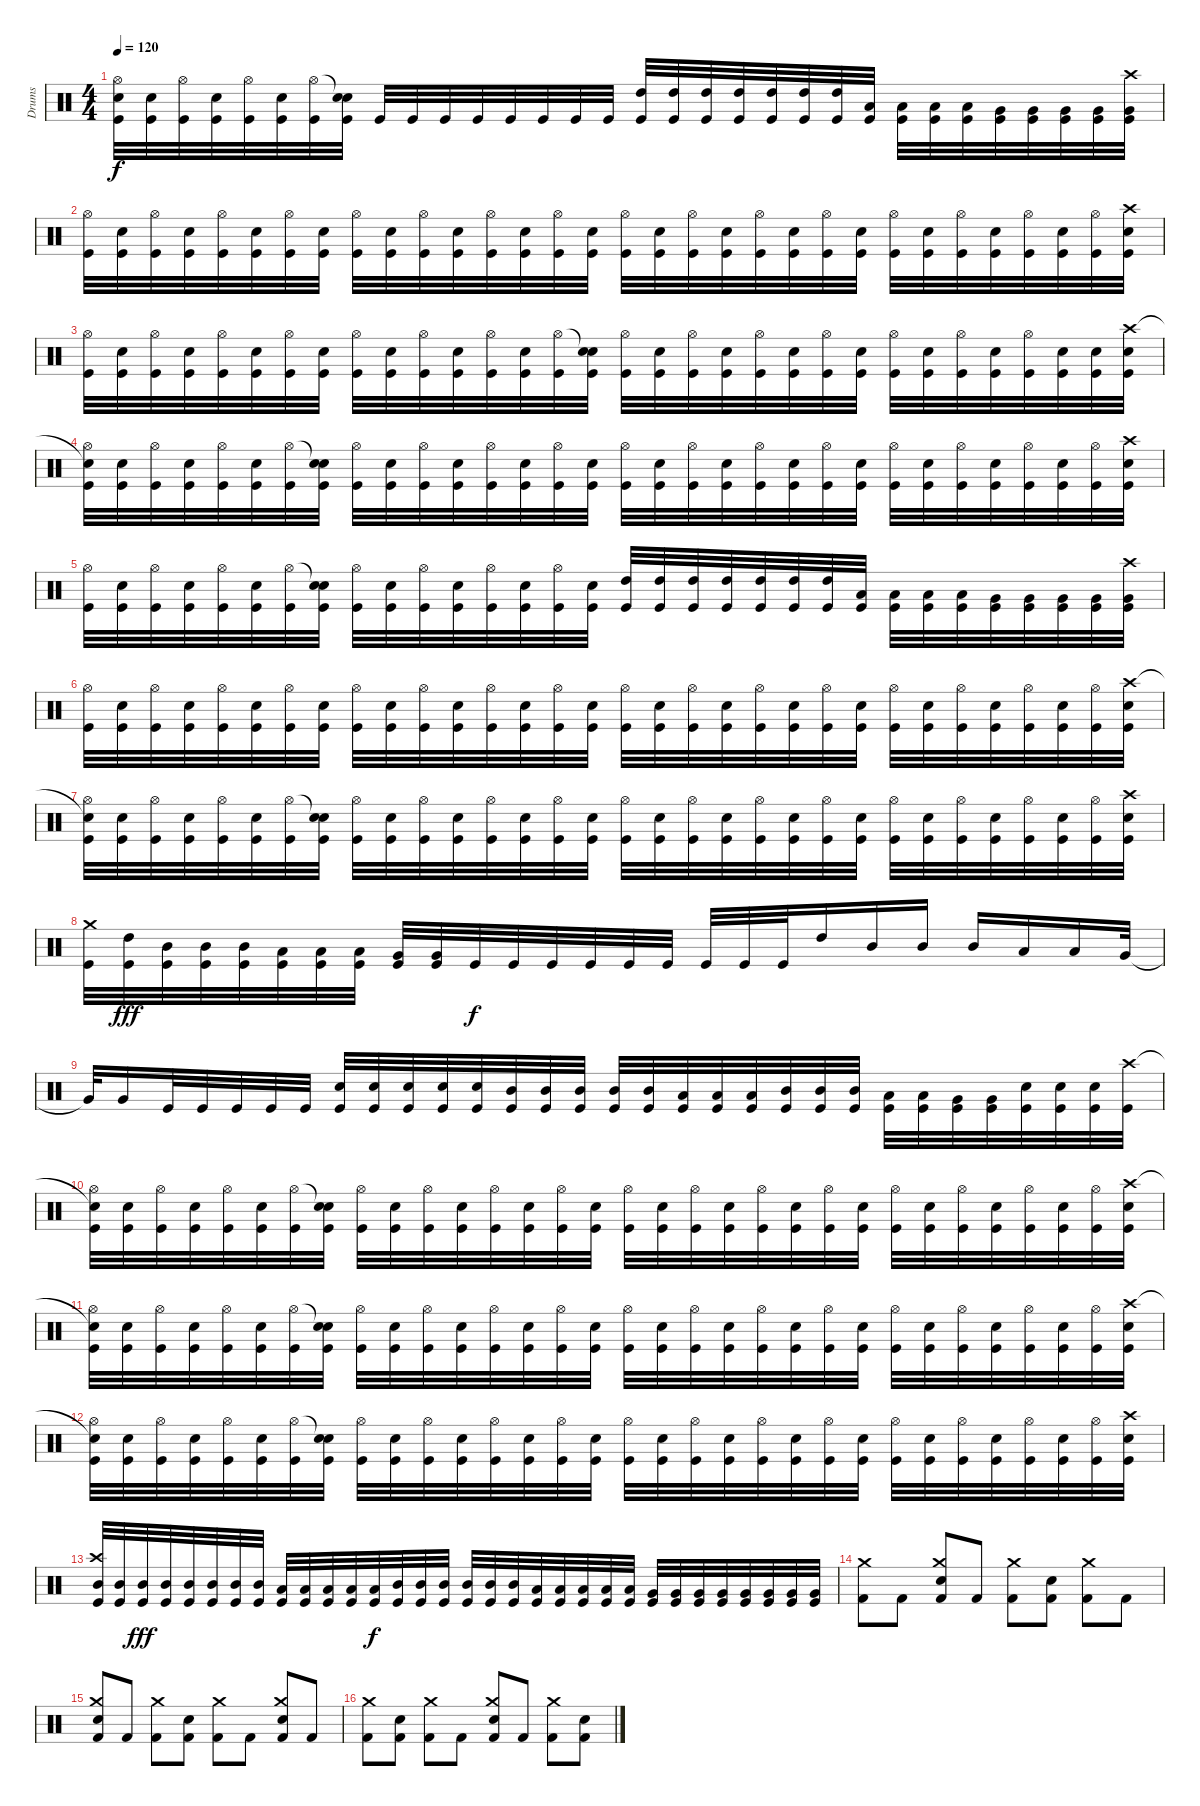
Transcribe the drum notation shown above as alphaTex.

\track ("Drums" "Drums") {instrument percussion}
\staff {score}
\articulation defaults
\ts (4 4)
\tempo 120
\clef neutral
\ks c
("Snare (hit)"{t} "Hi-Hat (open)" "Kick (hit)").32{dy f} ("Snare (hit) 2" "Kick (hit)").32 ("Hi-Hat (open)" "Kick (hit)").32 ("Snare (hit) 2" "Kick (hit)").32 ("Hi-Hat (open)" "Kick (hit)").32 ("Snare (hit) 2" "Kick (hit)").32 ("Hi-Hat (open)" "Kick (hit)").32 ("Snare (hit)"{t} "Snare (hit) 2" "Kick (hit)").32 "Kick (hit)".32 "Kick (hit)".32 "Kick (hit)".32 "Kick (hit)".32 "Kick (hit)".32 "Kick (hit)".32 "Kick (hit)".32 "Kick (hit)".32 ("High Tom (hit)" "Kick (hit)").32 ("High Tom (hit)" "Kick (hit)").32 ("High Tom (hit)" "Kick (hit)").32 ("High Tom (hit)" "Kick (hit)").32 ("High Tom (hit)" "Kick (hit)").32 ("High Tom (hit)" "Kick (hit)").32 ("High Tom (hit)" "Kick (hit)").32 ("Low Tom (hit)" "Kick (hit)").32 ("Low Tom (hit)" "Kick (hit)").32 ("Low Tom (hit)" "Kick (hit)").32 ("Low Tom (hit)" "Kick (hit)").32 ("Very Low Tom (hit)" "Kick (hit)").32 ("Very Low Tom (hit)" "Kick (hit)").32 ("Very Low Tom (hit)" "Kick (hit)").32 ("Very Low Tom (hit)" "Kick (hit)").32 ("Crash high (hit)" "Very Low Tom (hit)" "Kick (hit)").32 |
("Hi-Hat (open)" "Kick (hit)").32 ("Snare (hit) 2" "Kick (hit)").32 ("Hi-Hat (open)" "Kick (hit)").32 ("Snare (hit) 2" "Kick (hit)").32 ("Hi-Hat (open)" "Kick (hit)").32 ("Snare (hit) 2" "Kick (hit)").32 ("Hi-Hat (open)" "Kick (hit)").32 ("Snare (hit) 2" "Kick (hit)").32 ("Hi-Hat (open)" "Kick (hit)").32 ("Snare (hit) 2" "Kick (hit)").32 ("Hi-Hat (open)" "Kick (hit)").32 ("Snare (hit) 2" "Kick (hit)").32 ("Hi-Hat (open)" "Kick (hit)").32 ("Snare (hit) 2" "Kick (hit)").32 ("Hi-Hat (open)" "Kick (hit)").32 ("Snare (hit) 2" "Kick (hit)").32 ("Hi-Hat (open)" "Kick (hit)").32 ("Snare (hit) 2" "Kick (hit)").32 ("Hi-Hat (open)" "Kick (hit)").32 ("Snare (hit) 2" "Kick (hit)").32 ("Hi-Hat (open)" "Kick (hit)").32 ("Snare (hit) 2" "Kick (hit)").32 ("Hi-Hat (open)" "Kick (hit)").32 ("Snare (hit) 2" "Kick (hit)").32 ("Hi-Hat (open)" "Kick (hit)").32 ("Snare (hit) 2" "Kick (hit)").32 ("Hi-Hat (open)" "Kick (hit)").32 ("Snare (hit) 2" "Kick (hit)").32 ("Hi-Hat (open)" "Kick (hit)").32 ("Snare (hit) 2" "Kick (hit)").32 ("Hi-Hat (open)" "Kick (hit)").32 ("Crash high (hit)" "Snare (hit) 2" "Kick (hit)").32 |
("Hi-Hat (open)" "Kick (hit)").32 ("Snare (hit) 2" "Kick (hit)").32 ("Hi-Hat (open)" "Kick (hit)").32 ("Snare (hit) 2" "Kick (hit)").32 ("Hi-Hat (open)" "Kick (hit)").32 ("Snare (hit) 2" "Kick (hit)").32 ("Hi-Hat (open)" "Kick (hit)").32 ("Snare (hit) 2" "Kick (hit)").32 ("Hi-Hat (open)" "Kick (hit)").32 ("Snare (hit) 2" "Kick (hit)").32 ("Hi-Hat (open)" "Kick (hit)").32 ("Snare (hit) 2" "Kick (hit)").32 ("Hi-Hat (open)" "Kick (hit)").32 ("Snare (hit) 2" "Kick (hit)").32 ("Hi-Hat (open)" "Kick (hit)").32 ("Snare (hit)"{t} "Snare (hit) 2" "Kick (hit)").32 ("Hi-Hat (open)" "Kick (hit)").32 ("Snare (hit) 2" "Kick (hit)").32 ("Hi-Hat (open)" "Kick (hit)").32 ("Snare (hit) 2" "Kick (hit)").32 ("Hi-Hat (open)" "Kick (hit)").32 ("Snare (hit) 2" "Kick (hit)").32 ("Hi-Hat (open)" "Kick (hit)").32 ("Snare (hit) 2" "Kick (hit)").32 ("Hi-Hat (open)" "Kick (hit)").32 ("Snare (hit) 2" "Kick (hit)").32 ("Hi-Hat (open)" "Kick (hit)").32 ("Snare (hit) 2" "Kick (hit)").32 ("Hi-Hat (open)" "Kick (hit)").32 ("Snare (hit) 2" "Kick (hit)").32 ("Snare (hit)" "Kick (hit)").32 ("Crash high (hit)" "Snare (hit) 2" "Kick (hit)").32 |
("Snare (hit)"{t} "Hi-Hat (open)" "Kick (hit)").32 ("Snare (hit) 2" "Kick (hit)").32 ("Hi-Hat (open)" "Kick (hit)").32 ("Snare (hit) 2" "Kick (hit)").32 ("Hi-Hat (open)" "Kick (hit)").32 ("Snare (hit) 2" "Kick (hit)").32 ("Hi-Hat (open)" "Kick (hit)").32 ("Snare (hit)"{t} "Snare (hit) 2" "Kick (hit)").32 ("Hi-Hat (open)" "Kick (hit)").32 ("Snare (hit) 2" "Kick (hit)").32 ("Hi-Hat (open)" "Kick (hit)").32 ("Snare (hit) 2" "Kick (hit)").32 ("Hi-Hat (open)" "Kick (hit)").32 ("Snare (hit) 2" "Kick (hit)").32 ("Hi-Hat (open)" "Kick (hit)").32 ("Snare (hit) 2" "Kick (hit)").32 ("Hi-Hat (open)" "Kick (hit)").32 ("Snare (hit) 2" "Kick (hit)").32 ("Hi-Hat (open)" "Kick (hit)").32 ("Snare (hit) 2" "Kick (hit)").32 ("Hi-Hat (open)" "Kick (hit)").32 ("Snare (hit) 2" "Kick (hit)").32 ("Hi-Hat (open)" "Kick (hit)").32 ("Snare (hit) 2" "Kick (hit)").32 ("Hi-Hat (open)" "Kick (hit)").32 ("Snare (hit) 2" "Kick (hit)").32 ("Hi-Hat (open)" "Kick (hit)").32 ("Snare (hit) 2" "Kick (hit)").32 ("Hi-Hat (open)" "Kick (hit)").32 ("Snare (hit) 2" "Kick (hit)").32 ("Hi-Hat (open)" "Kick (hit)").32 ("Crash high (hit)" "Snare (hit) 2" "Kick (hit)").32 |
("Hi-Hat (open)" "Kick (hit)").32 ("Snare (hit) 2" "Kick (hit)").32 ("Hi-Hat (open)" "Kick (hit)").32 ("Snare (hit) 2" "Kick (hit)").32 ("Hi-Hat (open)" "Kick (hit)").32 ("Snare (hit) 2" "Kick (hit)").32 ("Hi-Hat (open)" "Kick (hit)").32 ("Snare (hit)"{t} "Snare (hit) 2" "Kick (hit)").32 ("Hi-Hat (open)" "Kick (hit)").32 ("Snare (hit) 2" "Kick (hit)").32 ("Hi-Hat (open)" "Kick (hit)").32 ("Snare (hit) 2" "Kick (hit)").32 ("Hi-Hat (open)" "Kick (hit)").32 ("Snare (hit) 2" "Kick (hit)").32 ("Hi-Hat (open)" "Kick (hit)").32 ("Snare (hit) 2" "Kick (hit)").32 ("High Tom (hit)" "Kick (hit)").32 ("High Tom (hit)" "Kick (hit)").32 ("High Tom (hit)" "Kick (hit)").32 ("High Tom (hit)" "Kick (hit)").32 ("High Tom (hit)" "Kick (hit)").32 ("High Tom (hit)" "Kick (hit)").32 ("High Tom (hit)" "Kick (hit)").32 ("Low Tom (hit)" "Kick (hit)").32 ("Low Tom (hit)" "Kick (hit)").32 ("Low Tom (hit)" "Kick (hit)").32 ("Low Tom (hit)" "Kick (hit)").32 ("Very Low Tom (hit)" "Kick (hit)").32 ("Very Low Tom (hit)" "Kick (hit)").32 ("Very Low Tom (hit)" "Kick (hit)").32 ("Very Low Tom (hit)" "Kick (hit)").32 ("Crash high (hit)" "Very Low Tom (hit)" "Kick (hit)").32 |
("Hi-Hat (open)" "Kick (hit)").32 ("Snare (hit) 2" "Kick (hit)").32 ("Hi-Hat (open)" "Kick (hit)").32 ("Snare (hit) 2" "Kick (hit)").32 ("Hi-Hat (open)" "Kick (hit)").32 ("Snare (hit) 2" "Kick (hit)").32 ("Hi-Hat (open)" "Kick (hit)").32 ("Snare (hit) 2" "Kick (hit)").32 ("Hi-Hat (open)" "Kick (hit)").32 ("Snare (hit) 2" "Kick (hit)").32 ("Hi-Hat (open)" "Kick (hit)").32 ("Snare (hit) 2" "Kick (hit)").32 ("Hi-Hat (open)" "Kick (hit)").32 ("Snare (hit) 2" "Kick (hit)").32 ("Hi-Hat (open)" "Kick (hit)").32 ("Snare (hit) 2" "Kick (hit)").32 ("Hi-Hat (open)" "Kick (hit)").32 ("Snare (hit) 2" "Kick (hit)").32 ("Hi-Hat (open)" "Kick (hit)").32 ("Snare (hit) 2" "Kick (hit)").32 ("Hi-Hat (open)" "Kick (hit)").32 ("Snare (hit) 2" "Kick (hit)").32 ("Hi-Hat (open)" "Kick (hit)").32 ("Snare (hit) 2" "Kick (hit)").32 ("Hi-Hat (open)" "Kick (hit)").32 ("Snare (hit) 2" "Kick (hit)").32 ("Hi-Hat (open)" "Kick (hit)").32 ("Snare (hit) 2" "Kick (hit)").32 ("Hi-Hat (open)" "Kick (hit)").32 ("Snare (hit) 2" "Kick (hit)").32 ("Hi-Hat (open)" "Kick (hit)").32 ("Crash high (hit)" "Snare (hit) 2" "Kick (hit)").32 |
("Snare (hit)"{t} "Hi-Hat (open)" "Kick (hit)").32 ("Snare (hit) 2" "Kick (hit)").32 ("Hi-Hat (open)" "Kick (hit)").32 ("Snare (hit) 2" "Kick (hit)").32 ("Hi-Hat (open)" "Kick (hit)").32 ("Snare (hit) 2" "Kick (hit)").32 ("Hi-Hat (open)" "Kick (hit)").32 ("Snare (hit)"{t} "Snare (hit) 2" "Kick (hit)").32 ("Hi-Hat (open)" "Kick (hit)").32 ("Snare (hit) 2" "Kick (hit)").32 ("Hi-Hat (open)" "Kick (hit)").32 ("Snare (hit) 2" "Kick (hit)").32 ("Hi-Hat (open)" "Kick (hit)").32 ("Snare (hit) 2" "Kick (hit)").32 ("Hi-Hat (open)" "Kick (hit)").32 ("Snare (hit) 2" "Kick (hit)").32 ("Hi-Hat (open)" "Kick (hit)").32 ("Snare (hit) 2" "Kick (hit)").32 ("Hi-Hat (open)" "Kick (hit)").32 ("Snare (hit) 2" "Kick (hit)").32 ("Hi-Hat (open)" "Kick (hit)").32 ("Snare (hit) 2" "Kick (hit)").32 ("Hi-Hat (open)" "Kick (hit)").32 ("Snare (hit) 2" "Kick (hit)").32 ("Hi-Hat (open)" "Kick (hit)").32 ("Snare (hit) 2" "Kick (hit)").32 ("Hi-Hat (open)" "Kick (hit)").32 ("Snare (hit) 2" "Kick (hit)").32 ("Hi-Hat (open)" "Kick (hit)").32 ("Snare (hit) 2" "Kick (hit)").32 ("Hi-Hat (open)" "Kick (hit)").32 ("Crash high (hit)" "Snare (hit) 2" "Kick (hit)").32 |
("Crash medium (hit)" "Kick (hit)").32 ("High Tom (hit)" "Kick (hit)").32{dy fff} ("Mid Tom (hit)" "Kick (hit)").32 ("Mid Tom (hit)" "Kick (hit)").32 ("Mid Tom (hit)" "Kick (hit)").32 ("Low Tom (hit)" "Kick (hit)").32 ("Low Tom (hit)" "Kick (hit)").32 ("Low Tom (hit)" "Kick (hit)").32 ("Very Low Tom (hit)" "Kick (hit)").32 ("Very Low Tom (hit)" "Kick (hit)").32 "Kick (hit)".32{dy f} "Kick (hit)".32 "Kick (hit)".32 "Kick (hit)".32 "Kick (hit)".32 "Kick (hit)".32 "Kick (hit)".32 "Kick (hit)".32 "Kick (hit)".32 "High Tom (hit)".16 "Mid Tom (hit)".16 "Mid Tom (hit)".16 "Mid Tom (hit)".16 "Low Tom (hit)".16 "Low Tom (hit)".16 "Very Low Tom (hit)".32 |
"Very Low Tom (hit)"{t}.32 "Very Low Tom (hit)".16 "Kick (hit)".32 "Kick (hit)".32 "Kick (hit)".32 "Kick (hit)".32 "Kick (hit)".32 ("Snare (hit) 2" "Kick (hit)").32 ("Snare (hit) 2" "Kick (hit)").32 ("Snare (hit) 2" "Kick (hit)").32 ("Snare (hit) 2" "Kick (hit)").32 ("Snare (hit) 2" "Kick (hit)").32 ("Mid Tom (hit)" "Kick (hit)").32 ("Mid Tom (hit)" "Kick (hit)").32 ("Mid Tom (hit)" "Kick (hit)").32 ("Mid Tom (hit)" "Kick (hit)").32 ("Mid Tom (hit)" "Kick (hit)").32 ("Low Tom (hit)" "Kick (hit)").32 ("Low Tom (hit)" "Kick (hit)").32 ("Low Tom (hit)" "Kick (hit)").32 ("Mid Tom (hit)" "Kick (hit)").32 ("Mid Tom (hit)" "Kick (hit)").32 ("Mid Tom (hit)" "Kick (hit)").32 ("Low Tom (hit)" "Kick (hit)").32 ("Low Tom (hit)" "Kick (hit)").32 ("Very Low Tom (hit)" "Kick (hit)").32 ("Very Low Tom (hit)" "Kick (hit)").32 ("Snare (hit) 2" "Kick (hit)").32 ("Snare (hit) 2" "Kick (hit)").32 ("Snare (hit) 2" "Kick (hit)").32 ("Crash high (hit)" "Kick (hit)").32 |
("Snare (hit)"{t} "Hi-Hat (open)" "Kick (hit)").32 ("Snare (hit) 2" "Kick (hit)").32 ("Hi-Hat (open)" "Kick (hit)").32 ("Snare (hit) 2" "Kick (hit)").32 ("Hi-Hat (open)" "Kick (hit)").32 ("Snare (hit) 2" "Kick (hit)").32 ("Hi-Hat (open)" "Kick (hit)").32 ("Snare (hit)"{t} "Snare (hit) 2" "Kick (hit)").32 ("Hi-Hat (open)" "Kick (hit)").32 ("Snare (hit) 2" "Kick (hit)").32 ("Hi-Hat (open)" "Kick (hit)").32 ("Snare (hit) 2" "Kick (hit)").32 ("Hi-Hat (open)" "Kick (hit)").32 ("Snare (hit) 2" "Kick (hit)").32 ("Hi-Hat (open)" "Kick (hit)").32 ("Snare (hit) 2" "Kick (hit)").32 ("Hi-Hat (open)" "Kick (hit)").32 ("Snare (hit) 2" "Kick (hit)").32 ("Hi-Hat (open)" "Kick (hit)").32 ("Snare (hit) 2" "Kick (hit)").32 ("Hi-Hat (open)" "Kick (hit)").32 ("Snare (hit) 2" "Kick (hit)").32 ("Hi-Hat (open)" "Kick (hit)").32 ("Snare (hit) 2" "Kick (hit)").32 ("Hi-Hat (open)" "Kick (hit)").32 ("Snare (hit) 2" "Kick (hit)").32 ("Hi-Hat (open)" "Kick (hit)").32 ("Snare (hit) 2" "Kick (hit)").32 ("Hi-Hat (open)" "Kick (hit)").32 ("Snare (hit) 2" "Kick (hit)").32 ("Hi-Hat (open)" "Kick (hit)").32 ("Crash high (hit)" "Snare (hit) 2" "Kick (hit)").32 |
("Snare (hit)"{t} "Hi-Hat (open)" "Kick (hit)").32 ("Snare (hit) 2" "Kick (hit)").32 ("Hi-Hat (open)" "Kick (hit)").32 ("Snare (hit) 2" "Kick (hit)").32 ("Hi-Hat (open)" "Kick (hit)").32 ("Snare (hit) 2" "Kick (hit)").32 ("Hi-Hat (open)" "Kick (hit)").32 ("Snare (hit)"{t} "Snare (hit) 2" "Kick (hit)").32 ("Hi-Hat (open)" "Kick (hit)").32 ("Snare (hit) 2" "Kick (hit)").32 ("Hi-Hat (open)" "Kick (hit)").32 ("Snare (hit) 2" "Kick (hit)").32 ("Hi-Hat (open)" "Kick (hit)").32 ("Snare (hit) 2" "Kick (hit)").32 ("Hi-Hat (open)" "Kick (hit)").32 ("Snare (hit) 2" "Kick (hit)").32 ("Hi-Hat (open)" "Kick (hit)").32 ("Snare (hit) 2" "Kick (hit)").32 ("Hi-Hat (open)" "Kick (hit)").32 ("Snare (hit) 2" "Kick (hit)").32 ("Hi-Hat (open)" "Kick (hit)").32 ("Snare (hit) 2" "Kick (hit)").32 ("Hi-Hat (open)" "Kick (hit)").32 ("Snare (hit) 2" "Kick (hit)").32 ("Hi-Hat (open)" "Kick (hit)").32 ("Snare (hit) 2" "Kick (hit)").32 ("Hi-Hat (open)" "Kick (hit)").32 ("Snare (hit) 2" "Kick (hit)").32 ("Hi-Hat (open)" "Kick (hit)").32 ("Snare (hit) 2" "Kick (hit)").32 ("Hi-Hat (open)" "Kick (hit)").32 ("Crash high (hit)" "Snare (hit) 2" "Kick (hit)").32 |
("Snare (hit)"{t} "Hi-Hat (open)" "Kick (hit)").32 ("Snare (hit) 2" "Kick (hit)").32 ("Hi-Hat (open)" "Kick (hit)").32 ("Snare (hit) 2" "Kick (hit)").32 ("Hi-Hat (open)" "Kick (hit)").32 ("Snare (hit) 2" "Kick (hit)").32 ("Hi-Hat (open)" "Kick (hit)").32 ("Snare (hit)"{t} "Snare (hit) 2" "Kick (hit)").32 ("Hi-Hat (open)" "Kick (hit)").32 ("Snare (hit) 2" "Kick (hit)").32 ("Hi-Hat (open)" "Kick (hit)").32 ("Snare (hit) 2" "Kick (hit)").32 ("Hi-Hat (open)" "Kick (hit)").32 ("Snare (hit) 2" "Kick (hit)").32 ("Hi-Hat (open)" "Kick (hit)").32 ("Snare (hit) 2" "Kick (hit)").32 ("Hi-Hat (open)" "Kick (hit)").32 ("Snare (hit) 2" "Kick (hit)").32 ("Hi-Hat (open)" "Kick (hit)").32 ("Snare (hit) 2" "Kick (hit)").32 ("Hi-Hat (open)" "Kick (hit)").32 ("Snare (hit) 2" "Kick (hit)").32 ("Hi-Hat (open)" "Kick (hit)").32 ("Snare (hit) 2" "Kick (hit)").32 ("Hi-Hat (open)" "Kick (hit)").32 ("Snare (hit) 2" "Kick (hit)").32 ("Hi-Hat (open)" "Kick (hit)").32 ("Snare (hit) 2" "Kick (hit)").32 ("Hi-Hat (open)" "Kick (hit)").32 ("Snare (hit) 2" "Kick (hit)").32 ("Hi-Hat (open)" "Kick (hit)").32 ("Crash high (hit)" "Snare (hit) 2" "Kick (hit)").32 |
("Mid Tom (hit)" "Crash high (hit)" "Kick (hit)").32 ("Mid Tom (hit)" "Kick (hit)").32 ("Mid Tom (hit)" "Kick (hit)").32{dy fff} ("Mid Tom (hit)" "Kick (hit)").32 ("Mid Tom (hit)" "Kick (hit)").32 ("Mid Tom (hit)" "Kick (hit)").32 ("Mid Tom (hit)" "Kick (hit)").32 ("Mid Tom (hit)" "Kick (hit)").32 ("Low Tom (hit)" "Kick (hit)").32 ("Low Tom (hit)" "Kick (hit)").32 ("Low Tom (hit)" "Kick (hit)").32 ("Low Tom (hit)" "Kick (hit)").32 ("Low Tom (hit)" "Kick (hit)").32{dy f} ("Mid Tom (hit)" "Kick (hit)").32 ("Mid Tom (hit)" "Kick (hit)").32 ("Mid Tom (hit)" "Kick (hit)").32 ("Mid Tom (hit)" "Kick (hit)").32 ("Mid Tom (hit)" "Kick (hit)").32 ("Mid Tom (hit)" "Kick (hit)").32 ("Low Tom (hit)" "Kick (hit)").32 ("Low Tom (hit)" "Kick (hit)").32 ("Low Tom (hit)" "Kick (hit)").32 ("Low Tom (hit)" "Kick (hit)").32 ("Low Tom (hit)" "Kick (hit)").32 ("Very Low Tom (hit)" "Kick (hit)").32 ("Very Low Tom (hit)" "Kick (hit)").32 ("Very Low Tom (hit)" "Kick (hit)").32 ("Very Low Tom (hit)" "Kick (hit)").32 ("Very Low Tom (hit)" "Kick (hit)").32 ("Very Low Tom (hit)" "Kick (hit)").32 ("Very Low Tom (hit)" "Kick (hit)").32 ("Very Low Tom (hit)" "Kick (hit)").32 |
("Kick (hit) 2" "Crash medium (hit)").8 "Kick (hit) 2".8 ("Kick (hit) 2" "Snare (hit) 2" "Crash medium (hit)").8 "Kick (hit) 2".8 ("Kick (hit) 2" "Crash medium (hit)").8 ("Kick (hit) 2" "Snare (hit) 2").8 ("Kick (hit) 2" "Crash medium (hit)").8 "Kick (hit) 2".8 |
("Kick (hit) 2" "Snare (hit) 2" "Crash medium (hit)").8 "Kick (hit) 2".8 ("Kick (hit) 2" "Crash medium (hit)").8 ("Kick (hit) 2" "Snare (hit) 2").8 ("Kick (hit) 2" "Crash medium (hit)").8 "Kick (hit) 2".8 ("Kick (hit) 2" "Snare (hit) 2" "Crash medium (hit)").8 "Kick (hit) 2".8 |
("Kick (hit) 2" "Crash medium (hit)").8 ("Kick (hit) 2" "Snare (hit) 2").8 ("Kick (hit) 2" "Crash medium (hit)").8 "Kick (hit) 2".8 ("Kick (hit) 2" "Snare (hit) 2" "Crash medium (hit)").8 "Kick (hit) 2".8 ("Kick (hit) 2" "Crash medium (hit)").8 ("Kick (hit) 2" "Snare (hit) 2").8
